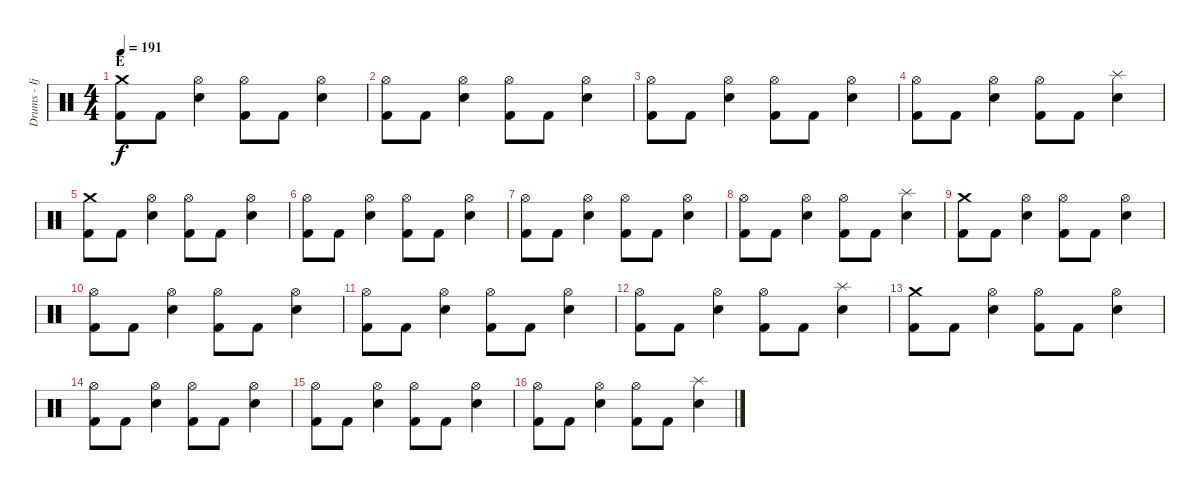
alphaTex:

\track ("Drums - Ijichi" "Drums - Ij") {instrument percussion}
\staff
\articulation defaults
\ts (4 4)
\section ("" "E")
\tempo 191
\clef neutral
\ks c
("Crash medium (hit)" "Kick (hit) 2").8{dy f} "Kick (hit) 2".8 ("Hi-Hat (open)" "Electric Snare (hit)").4 ("Hi-Hat (open)" "Kick (hit) 2").8 "Kick (hit) 2".8 ("Hi-Hat (open)" "Electric Snare (hit)").4 |
("Hi-Hat (open)" "Kick (hit) 2").8 "Kick (hit) 2".8 ("Hi-Hat (open)" "Electric Snare (hit)").4 ("Hi-Hat (open)" "Kick (hit) 2").8 "Kick (hit) 2".8 ("Hi-Hat (open)" "Electric Snare (hit)").4 |
("Hi-Hat (open)" "Kick (hit) 2").8 "Kick (hit) 2".8 ("Hi-Hat (open)" "Electric Snare (hit)").4 ("Hi-Hat (open)" "Kick (hit) 2").8 "Kick (hit) 2".8 ("Hi-Hat (open)" "Electric Snare (hit)").4 |
("Hi-Hat (open)" "Kick (hit) 2").8 "Kick (hit) 2".8 ("Hi-Hat (open)" "Electric Snare (hit)").4 ("Hi-Hat (open)" "Kick (hit) 2").8 "Kick (hit) 2".8 ("Splash (hit)" "Electric Snare (hit)").4 |
("Crash medium (hit)" "Kick (hit) 2").8 "Kick (hit) 2".8 ("Hi-Hat (open)" "Electric Snare (hit)").4 ("Hi-Hat (open)" "Kick (hit) 2").8 "Kick (hit) 2".8 ("Hi-Hat (open)" "Electric Snare (hit)").4 |
("Hi-Hat (open)" "Kick (hit) 2").8 "Kick (hit) 2".8 ("Hi-Hat (open)" "Electric Snare (hit)").4 ("Hi-Hat (open)" "Kick (hit) 2").8 "Kick (hit) 2".8 ("Hi-Hat (open)" "Electric Snare (hit)").4 |
("Hi-Hat (open)" "Kick (hit) 2").8 "Kick (hit) 2".8 ("Hi-Hat (open)" "Electric Snare (hit)").4 ("Hi-Hat (open)" "Kick (hit) 2").8 "Kick (hit) 2".8 ("Hi-Hat (open)" "Electric Snare (hit)").4 |
("Hi-Hat (open)" "Kick (hit) 2").8 "Kick (hit) 2".8 ("Hi-Hat (open)" "Electric Snare (hit)").4 ("Hi-Hat (open)" "Kick (hit) 2").8 "Kick (hit) 2".8 ("Splash (hit)" "Electric Snare (hit)").4 |
("Crash medium (hit)" "Kick (hit) 2").8 "Kick (hit) 2".8 ("Hi-Hat (open)" "Electric Snare (hit)").4 ("Hi-Hat (open)" "Kick (hit) 2").8 "Kick (hit) 2".8 ("Hi-Hat (open)" "Electric Snare (hit)").4 |
("Hi-Hat (open)" "Kick (hit) 2").8 "Kick (hit) 2".8 ("Hi-Hat (open)" "Electric Snare (hit)").4 ("Hi-Hat (open)" "Kick (hit) 2").8 "Kick (hit) 2".8 ("Hi-Hat (open)" "Electric Snare (hit)").4 |
("Hi-Hat (open)" "Kick (hit) 2").8 "Kick (hit) 2".8 ("Hi-Hat (open)" "Electric Snare (hit)").4 ("Hi-Hat (open)" "Kick (hit) 2").8 "Kick (hit) 2".8 ("Hi-Hat (open)" "Electric Snare (hit)").4 |
("Hi-Hat (open)" "Kick (hit) 2").8 "Kick (hit) 2".8 ("Hi-Hat (open)" "Electric Snare (hit)").4 ("Hi-Hat (open)" "Kick (hit) 2").8 "Kick (hit) 2".8 ("Splash (hit)" "Electric Snare (hit)").4 |
("Crash medium (hit)" "Kick (hit) 2").8 "Kick (hit) 2".8 ("Hi-Hat (open)" "Electric Snare (hit)").4 ("Hi-Hat (open)" "Kick (hit) 2").8 "Kick (hit) 2".8 ("Hi-Hat (open)" "Electric Snare (hit)").4 |
("Hi-Hat (open)" "Kick (hit) 2").8 "Kick (hit) 2".8 ("Hi-Hat (open)" "Electric Snare (hit)").4 ("Hi-Hat (open)" "Kick (hit) 2").8 "Kick (hit) 2".8 ("Hi-Hat (open)" "Electric Snare (hit)").4 |
("Hi-Hat (open)" "Kick (hit) 2").8 "Kick (hit) 2".8 ("Hi-Hat (open)" "Electric Snare (hit)").4 ("Hi-Hat (open)" "Kick (hit) 2").8 "Kick (hit) 2".8 ("Hi-Hat (open)" "Electric Snare (hit)").4 |
("Hi-Hat (open)" "Kick (hit) 2").8 "Kick (hit) 2".8 ("Hi-Hat (open)" "Electric Snare (hit)").4 ("Hi-Hat (open)" "Kick (hit) 2").8 "Kick (hit) 2".8 ("Splash (hit)" "Electric Snare (hit)").4
